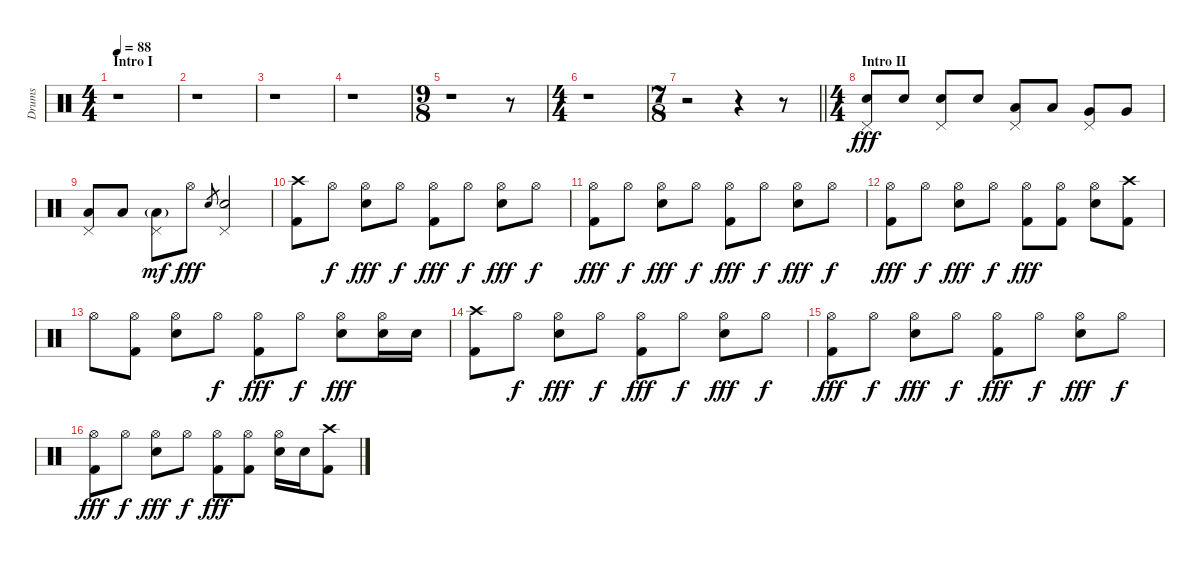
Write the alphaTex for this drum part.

\track ("Drums" "Drums") {instrument percussion}
\staff {score}
\articulation defaults
\ts (4 4)
\section ("" "Intro I")
\tempo 88
\clef neutral
\ks c
r.1{dy fff} |
r.1 |
r.1 |
r.1 |
\ts (9 8)
r.1 r.8 |
\ts (4 4)
r.1 |
\ts (7 8)
\barLineRight lightlight
r.2 r.4 r.8 |
\ts (4 4)
\section ("" "Intro II")
("Pedal Hi-Hat (hit)" "Snare (hit) 2").8 "Snare (hit) 2".8 ("Pedal Hi-Hat (hit)" "Snare (hit) 2").8 "Snare (hit) 2".8 ("Pedal Hi-Hat (hit)" "Low Tom (hit)").8 "Low Tom (hit)".8 ("Pedal Hi-Hat (hit)" "Very Low Tom (hit)").8 "Very Low Tom (hit)".8 |
("Pedal Hi-Hat (hit)" "Low Floor Tom (hit)").8 "Low Floor Tom (hit)".8 ("Pedal Hi-Hat (hit)" "Low Floor Tom (hit)"{g}).8{dy mf} "Hi-Hat (open)".8{dy fff} "Snare (hit) 2".8{gr} ("Pedal Hi-Hat (hit)" "Snare (hit) 2").2 |
("Crash high (hit)" "Kick (hit) 2").8 "Hi-Hat (open)".8{dy f} ("Hi-Hat (open)" "Snare (hit) 2").8{dy fff} "Hi-Hat (open)".8{dy f} ("Hi-Hat (open)" "Kick (hit) 2").8{dy fff} "Hi-Hat (open)".8{dy f} ("Hi-Hat (open)" "Snare (hit) 2").8{dy fff} "Hi-Hat (open)".8{dy f} |
("Hi-Hat (open)" "Kick (hit) 2").8{dy fff} "Hi-Hat (open)".8{dy f} ("Hi-Hat (open)" "Snare (hit) 2").8{dy fff} "Hi-Hat (open)".8{dy f} ("Hi-Hat (open)" "Kick (hit) 2").8{dy fff} "Hi-Hat (open)".8{dy f} ("Hi-Hat (open)" "Snare (hit) 2").8{dy fff} "Hi-Hat (open)".8{dy f} |
("Hi-Hat (open)" "Kick (hit) 2").8{dy fff} "Hi-Hat (open)".8{dy f} ("Hi-Hat (open)" "Snare (hit) 2").8{dy fff} "Hi-Hat (open)".8{dy f} ("Hi-Hat (open)" "Kick (hit) 2").8{dy fff} ("Hi-Hat (open)" "Kick (hit) 2").8 ("Hi-Hat (open)" "Snare (hit) 2").8 ("Crash high (hit)" "Kick (hit) 2").8 |
"Hi-Hat (open)".8 ("Hi-Hat (open)" "Kick (hit) 2").8 ("Hi-Hat (open)" "Snare (hit) 2").8 "Hi-Hat (open)".8{dy f} ("Hi-Hat (open)" "Kick (hit) 2").8{dy fff} "Hi-Hat (open)".8{dy f} ("Hi-Hat (open)" "Snare (hit) 2").8{dy fff} ("Hi-Hat (open)" "Snare (hit) 2").16 "Snare (hit) 2".16 |
("Crash high (hit)" "Kick (hit) 2").8 "Hi-Hat (open)".8{dy f} ("Hi-Hat (open)" "Snare (hit) 2").8{dy fff} "Hi-Hat (open)".8{dy f} ("Hi-Hat (open)" "Kick (hit) 2").8{dy fff} "Hi-Hat (open)".8{dy f} ("Hi-Hat (open)" "Snare (hit) 2").8{dy fff} "Hi-Hat (open)".8{dy f} |
("Hi-Hat (open)" "Kick (hit) 2").8{dy fff} "Hi-Hat (open)".8{dy f} ("Hi-Hat (open)" "Snare (hit) 2").8{dy fff} "Hi-Hat (open)".8{dy f} ("Hi-Hat (open)" "Kick (hit) 2").8{dy fff} "Hi-Hat (open)".8{dy f} ("Hi-Hat (open)" "Snare (hit) 2").8{dy fff} "Hi-Hat (open)".8{dy f} |
("Hi-Hat (open)" "Kick (hit) 2").8{dy fff} "Hi-Hat (open)".8{dy f} ("Hi-Hat (open)" "Snare (hit) 2").8{dy fff} "Hi-Hat (open)".8{dy f} ("Hi-Hat (open)" "Kick (hit) 2").8{dy fff} ("Hi-Hat (open)" "Kick (hit) 2").8 ("Hi-Hat (open)" "Snare (hit) 2").16 "Snare (hit) 2".16 ("Crash high (hit)" "Kick (hit) 2").8
